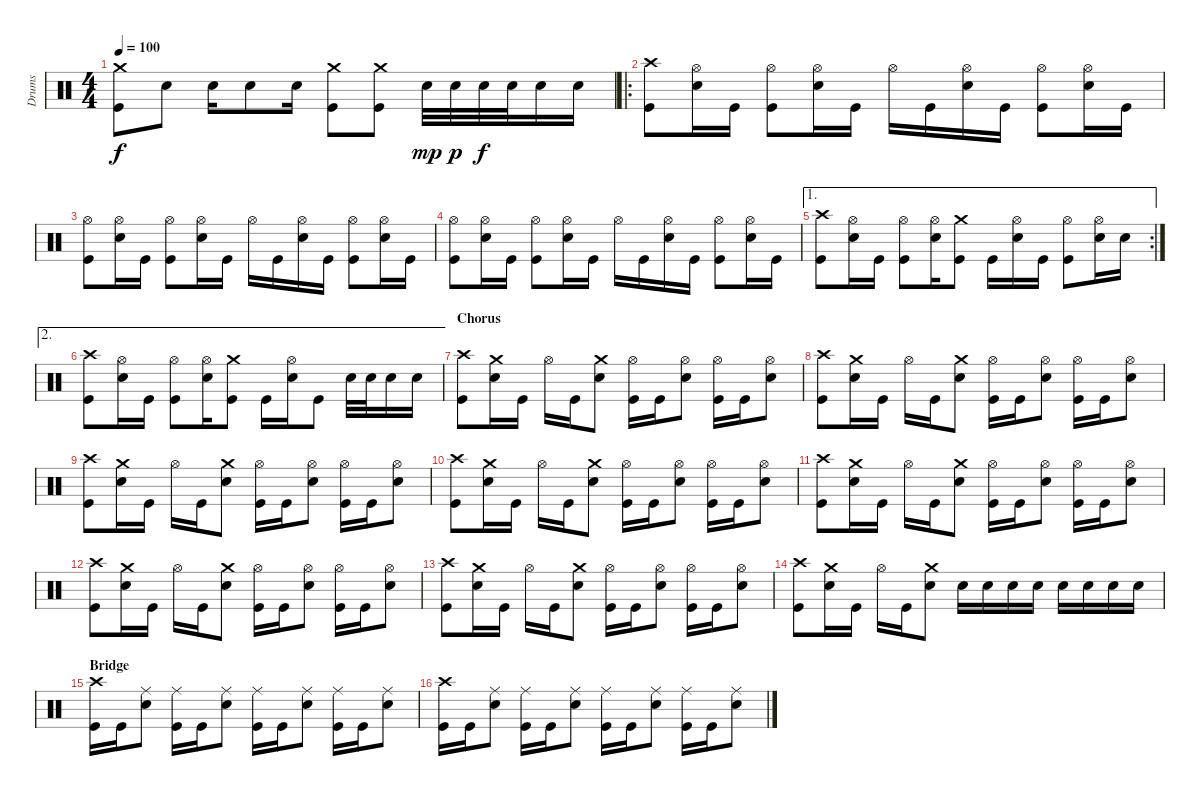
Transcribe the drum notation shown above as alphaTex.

\track ("Drums" "Drums") {instrument percussion}
\staff {score}
\articulation defaults
\ts (4 4)
\tempo 100
\clef neutral
\ks c
("Crash medium (hit)" "Kick (hit)").8{dy f} "Electric Snare (hit)".8 "Electric Snare (hit)".16 "Electric Snare (hit)".8 "Electric Snare (hit)".16 ("Crash medium (hit)" "Kick (hit)").8 ("Crash medium (hit)" "Kick (hit)").8 "Electric Snare (hit)".32{dy mp} "Electric Snare (hit)".32{dy p} "Electric Snare (hit)".32{dy f} "Electric Snare (hit)".32 "Electric Snare (hit)".16 "Electric Snare (hit)".16 |
\ro
("Crash high (hit)" "Kick (hit)").8 ("Hi-Hat (open)" "Electric Snare (hit)").16 "Kick (hit)".16 ("Hi-Hat (open)" "Kick (hit)").8 ("Hi-Hat (open)" "Electric Snare (hit)").16 "Kick (hit)".16 "Hi-Hat (open)".16 "Kick (hit)".16 ("Hi-Hat (open)" "Electric Snare (hit)").16 "Kick (hit)".16 ("Hi-Hat (open)" "Kick (hit)").8 ("Hi-Hat (open)" "Electric Snare (hit)").16 "Kick (hit)".16 |
("Hi-Hat (open)" "Kick (hit)").8 ("Hi-Hat (open)" "Electric Snare (hit)").16 "Kick (hit)".16 ("Hi-Hat (open)" "Kick (hit)").8 ("Hi-Hat (open)" "Electric Snare (hit)").16 "Kick (hit)".16 "Hi-Hat (open)".16 "Kick (hit)".16 ("Hi-Hat (open)" "Electric Snare (hit)").16 "Kick (hit)".16 ("Hi-Hat (open)" "Kick (hit)").8 ("Hi-Hat (open)" "Electric Snare (hit)").16 "Kick (hit)".16 |
("Hi-Hat (open)" "Kick (hit)").8 ("Hi-Hat (open)" "Electric Snare (hit)").16 "Kick (hit)".16 ("Hi-Hat (open)" "Kick (hit)").8 ("Hi-Hat (open)" "Electric Snare (hit)").16 "Kick (hit)".16 "Hi-Hat (open)".16 "Kick (hit)".16 ("Hi-Hat (open)" "Electric Snare (hit)").16 "Kick (hit)".16 ("Hi-Hat (open)" "Kick (hit)").8 ("Hi-Hat (open)" "Electric Snare (hit)").16 "Kick (hit)".16 |
\ae 1
\rc 2
("Crash high (hit)" "Kick (hit)").8 ("Hi-Hat (open)" "Electric Snare (hit)").16 "Kick (hit)".16 ("Hi-Hat (open)" "Kick (hit)").8 ("Hi-Hat (open)" "Electric Snare (hit)").16 ("Crash medium (hit)" "Kick (hit)").8 "Kick (hit)".16 ("Hi-Hat (open)" "Electric Snare (hit)").16 "Kick (hit)".16 ("Hi-Hat (open)" "Kick (hit)").8 ("Hi-Hat (open)" "Electric Snare (hit)").16 "Electric Snare (hit)".16 |
\ae 2
("Crash high (hit)" "Kick (hit)").8 ("Hi-Hat (open)" "Electric Snare (hit)").16 "Kick (hit)".16 ("Hi-Hat (open)" "Kick (hit)").8 ("Hi-Hat (open)" "Electric Snare (hit)").16 ("Crash medium (hit)" "Kick (hit)").8 "Kick (hit)".16 ("Hi-Hat (open)" "Electric Snare (hit)").16 "Kick (hit)".8 "Electric Snare (hit)".32 "Electric Snare (hit)".32 "Electric Snare (hit)".16 "Electric Snare (hit)".16 |
\section ("" "Chorus")
("Crash high (hit)" "Kick (hit)").8 ("Crash medium (hit)" "Electric Snare (hit)").16 "Kick (hit)".16 "Hi-Hat (open)".16 "Kick (hit)".16 ("Crash medium (hit)" "Electric Snare (hit)").8 ("Hi-Hat (open)" "Kick (hit)").16 "Kick (hit)".16 ("Hi-Hat (open)" "Electric Snare (hit)").8 ("Hi-Hat (open)" "Kick (hit)").16 "Kick (hit)".16 ("Hi-Hat (open)" "Electric Snare (hit)").8 |
("Crash high (hit)" "Kick (hit)").8 ("Crash medium (hit)" "Electric Snare (hit)").16 "Kick (hit)".16 "Hi-Hat (open)".16 "Kick (hit)".16 ("Crash medium (hit)" "Electric Snare (hit)").8 ("Hi-Hat (open)" "Kick (hit)").16 "Kick (hit)".16 ("Hi-Hat (open)" "Electric Snare (hit)").8 ("Hi-Hat (open)" "Kick (hit)").16 "Kick (hit)".16 ("Hi-Hat (open)" "Electric Snare (hit)").8 |
("Crash high (hit)" "Kick (hit)").8 ("Crash medium (hit)" "Electric Snare (hit)").16 "Kick (hit)".16 "Hi-Hat (open)".16 "Kick (hit)".16 ("Crash medium (hit)" "Electric Snare (hit)").8 ("Hi-Hat (open)" "Kick (hit)").16 "Kick (hit)".16 ("Hi-Hat (open)" "Electric Snare (hit)").8 ("Hi-Hat (open)" "Kick (hit)").16 "Kick (hit)".16 ("Hi-Hat (open)" "Electric Snare (hit)").8 |
("Crash high (hit)" "Kick (hit)").8 ("Crash medium (hit)" "Electric Snare (hit)").16 "Kick (hit)".16 "Hi-Hat (open)".16 "Kick (hit)".16 ("Crash medium (hit)" "Electric Snare (hit)").8 ("Hi-Hat (open)" "Kick (hit)").16 "Kick (hit)".16 ("Hi-Hat (open)" "Electric Snare (hit)").8 ("Hi-Hat (open)" "Kick (hit)").16 "Kick (hit)".16 ("Hi-Hat (open)" "Electric Snare (hit)").8 |
("Crash high (hit)" "Kick (hit)").8 ("Crash medium (hit)" "Electric Snare (hit)").16 "Kick (hit)".16 "Hi-Hat (open)".16 "Kick (hit)".16 ("Crash medium (hit)" "Electric Snare (hit)").8 ("Hi-Hat (open)" "Kick (hit)").16 "Kick (hit)".16 ("Hi-Hat (open)" "Electric Snare (hit)").8 ("Hi-Hat (open)" "Kick (hit)").16 "Kick (hit)".16 ("Hi-Hat (open)" "Electric Snare (hit)").8 |
("Crash high (hit)" "Kick (hit)").8 ("Crash medium (hit)" "Electric Snare (hit)").16 "Kick (hit)".16 "Hi-Hat (open)".16 "Kick (hit)".16 ("Crash medium (hit)" "Electric Snare (hit)").8 ("Hi-Hat (open)" "Kick (hit)").16 "Kick (hit)".16 ("Hi-Hat (open)" "Electric Snare (hit)").8 ("Hi-Hat (open)" "Kick (hit)").16 "Kick (hit)".16 ("Hi-Hat (open)" "Electric Snare (hit)").8 |
("Crash high (hit)" "Kick (hit)").8 ("Crash medium (hit)" "Electric Snare (hit)").16 "Kick (hit)".16 "Hi-Hat (open)".16 "Kick (hit)".16 ("Crash medium (hit)" "Electric Snare (hit)").8 ("Hi-Hat (open)" "Kick (hit)").16 "Kick (hit)".16 ("Hi-Hat (open)" "Electric Snare (hit)").8 ("Hi-Hat (open)" "Kick (hit)").16 "Kick (hit)".16 ("Hi-Hat (open)" "Electric Snare (hit)").8 |
("Crash high (hit)" "Kick (hit)").8 ("Crash medium (hit)" "Electric Snare (hit)").16 "Kick (hit)".16 "Hi-Hat (open)".16 "Kick (hit)".16 ("Crash medium (hit)" "Electric Snare (hit)").8 "Electric Snare (hit)".16 "Electric Snare (hit)".16 "Electric Snare (hit)".16 "Electric Snare (hit)".16 "Electric Snare (hit)".16 "Electric Snare (hit)".16 "Electric Snare (hit)".16 "Electric Snare (hit)".16 |
\section ("" "Bridge")
("Crash high (hit)" "Kick (hit)").16 "Kick (hit)".16 ("Ride (middle)" "Electric Snare (hit)").8 ("Ride (middle)" "Kick (hit)").16 "Kick (hit)".16 ("Ride (middle)" "Electric Snare (hit)").8 ("Ride (middle)" "Kick (hit)").16 "Kick (hit)".16 ("Ride (middle)" "Electric Snare (hit)").8 ("Ride (middle)" "Kick (hit)").16 "Kick (hit)".16 ("Ride (middle)" "Electric Snare (hit)").8 |
("Crash high (hit)" "Kick (hit)").16 "Kick (hit)".16 ("Ride (middle)" "Electric Snare (hit)").8 ("Ride (middle)" "Kick (hit)").16 "Kick (hit)".16 ("Ride (middle)" "Electric Snare (hit)").8 ("Ride (middle)" "Kick (hit)").16 "Kick (hit)".16 ("Ride (middle)" "Electric Snare (hit)").8 ("Ride (middle)" "Kick (hit)").16 "Kick (hit)".16 ("Ride (middle)" "Electric Snare (hit)").8
